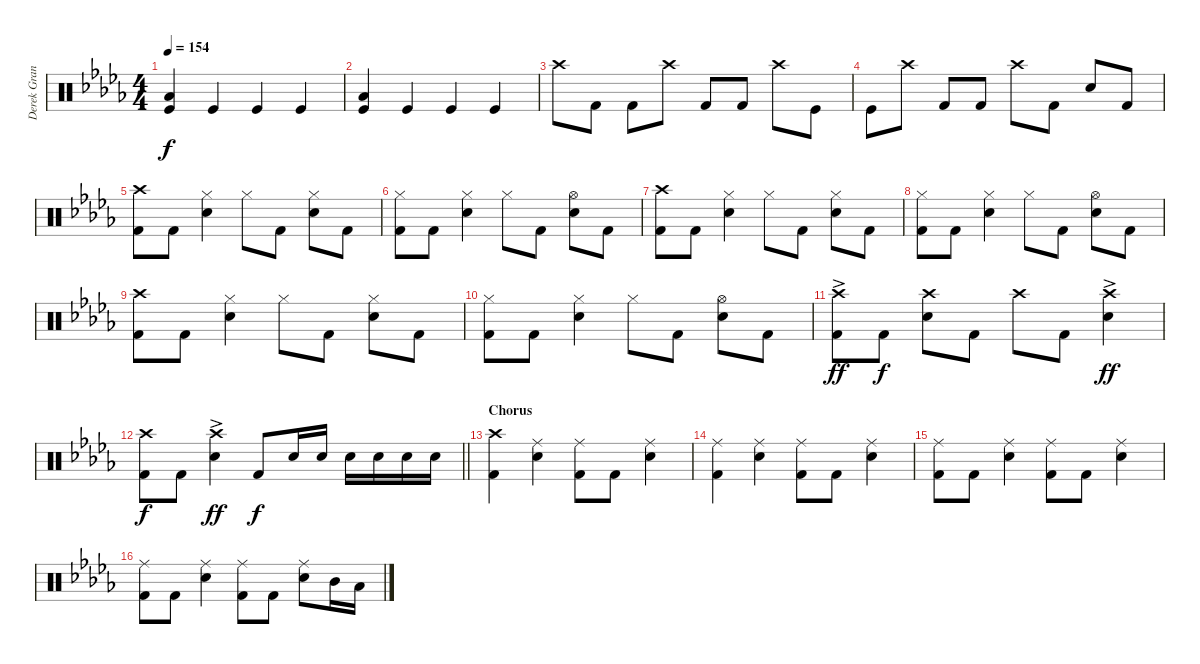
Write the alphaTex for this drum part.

\track ("Derek Grant - Drums" "Derek Gran") {instrument percussion}
\staff {score}
\articulation defaults
\ts (4 4)
\tempo 154
\clef neutral
\ks db
("Kick (hit)" "Low Floor Tom (hit)").4{dy f} "Kick (hit)".4 "Kick (hit)".4 "Kick (hit)".4 |
("Kick (hit)" "Low Floor Tom (hit)").4 "Kick (hit)".4 "Kick (hit)".4 "Kick (hit)".4 |
"Crash high (hit)".8 "Kick (hit) 2".8 "Kick (hit) 2".8 "Crash high (hit)".8 "Kick (hit) 2".8 "Kick (hit) 2".8 "Crash high (hit)".8 "Kick (hit)".8 |
"Kick (hit)".8 "Crash high (hit)".8 "Kick (hit) 2".8 "Kick (hit) 2".8 "Crash high (hit)".8 "Kick (hit) 2".8 "Snare (hit) 2".8 "Kick (hit) 2".8 |
("Crash high (hit)" "Kick (hit) 2").8 "Kick (hit) 2".8 ("Electric Snare (hit)" "Hi-Hat (closed)").4 "Hi-Hat (closed)".8 "Kick (hit) 2".8 ("Snare (hit) 2" "Hi-Hat (closed)").8 "Kick (hit) 2".8 |
("Kick (hit) 2" "Hi-Hat (closed)").8 "Kick (hit) 2".8 ("Hi-Hat (closed)" "Snare (hit) 2").4 "Hi-Hat (closed)".8 "Kick (hit) 2".8 ("Snare (hit) 2" "Hi-Hat (open)").8 "Kick (hit) 2".8 |
("Crash high (hit)" "Kick (hit) 2").8 "Kick (hit) 2".8 ("Electric Snare (hit)" "Hi-Hat (closed)").4 "Hi-Hat (closed)".8 "Kick (hit) 2".8 ("Snare (hit) 2" "Hi-Hat (closed)").8 "Kick (hit) 2".8 |
("Kick (hit) 2" "Hi-Hat (closed)").8 "Kick (hit) 2".8 ("Hi-Hat (closed)" "Snare (hit) 2").4 "Hi-Hat (closed)".8 "Kick (hit) 2".8 ("Snare (hit) 2" "Hi-Hat (open)").8 "Kick (hit) 2".8 |
("Crash high (hit)" "Kick (hit) 2").8 "Kick (hit) 2".8 ("Electric Snare (hit)" "Hi-Hat (closed)").4 "Hi-Hat (closed)".8 "Kick (hit) 2".8 ("Snare (hit) 2" "Hi-Hat (closed)").8 "Kick (hit) 2".8 |
("Kick (hit) 2" "Hi-Hat (closed)").8 "Kick (hit) 2".8 ("Hi-Hat (closed)" "Snare (hit) 2").4 "Hi-Hat (closed)".8 "Kick (hit) 2".8 ("Snare (hit) 2" "Hi-Hat (open)").8 "Kick (hit) 2".8 |
("Kick (hit) 2" "Crash high (hit)"{ac}).8{dy ff} "Kick (hit) 2".8{dy f} ("Snare (hit) 2" "Crash high (hit)").8 "Kick (hit) 2".8 "Crash high (hit)".8 "Kick (hit) 2".8 ("Snare (hit) 2" "Crash high (hit)"{ac}).4{dy ff} |
\barLineRight lightlight
("Kick (hit) 2" "Crash high (hit)").8{dy f} "Kick (hit) 2".8 ("Snare (hit) 2" "Crash high (hit)"{ac}).4{dy ff} "Kick (hit) 2".8{dy f} "Snare (hit) 2".16 "Snare (hit) 2".16 "Snare (hit) 2".16 "Snare (hit) 2".16 "Snare (hit) 2".16 "Snare (hit) 2".16 |
\section ("" "Chorus")
("Crash high (hit)" "Kick (hit) 2").4 ("Ride (middle)" "Snare (hit) 2").4 ("Ride (middle)" "Kick (hit) 2").8 "Kick (hit) 2".8 ("Ride (middle)" "Snare (hit) 2").4 |
("Ride (middle)" "Kick (hit) 2").4 ("Ride (middle)" "Snare (hit) 2").4 ("Ride (middle)" "Kick (hit) 2").8 "Kick (hit) 2".8 ("Ride (middle)" "Snare (hit) 2").4 |
("Ride (middle)" "Kick (hit) 2").8 "Kick (hit) 2".8 ("Ride (middle)" "Snare (hit) 2").4 ("Ride (middle)" "Kick (hit) 2").8 "Kick (hit) 2".8 ("Ride (middle)" "Snare (hit) 2").4 |
("Ride (middle)" "Kick (hit) 2").8 "Kick (hit) 2".8 ("Ride (middle)" "Snare (hit) 2").4 ("Ride (middle)" "Kick (hit) 2").8 "Kick (hit) 2".8 ("Ride (middle)" "Snare (hit) 2").8 "Mid Tom (hit)".16 "Low Tom (hit)".16
